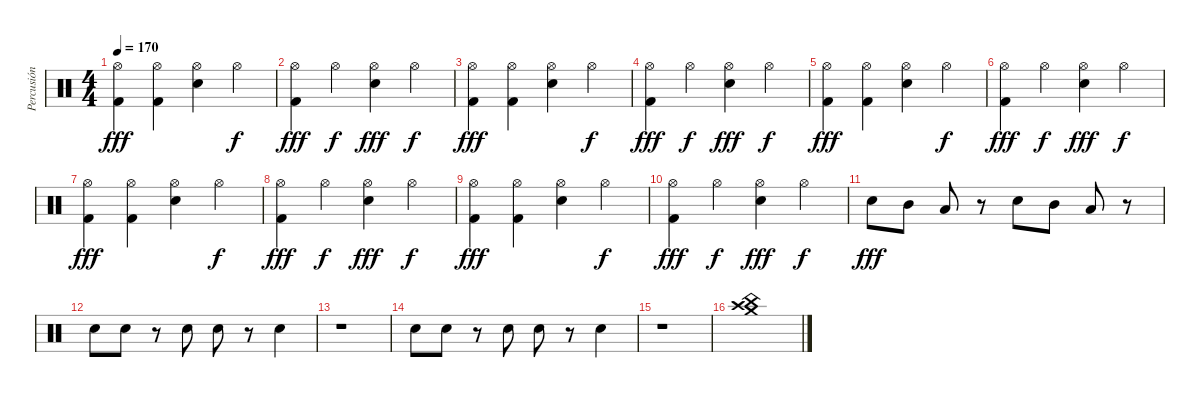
\track ("Percusión" "Percusión") {instrument percussion}
\staff {score}
\articulation defaults
\ts (4 4)
\tempo 170
\clef neutral
\ks c
("Hi-Hat (open)" "Kick (hit) 2").4{dy fff} ("Hi-Hat (open)" "Kick (hit) 2").4 ("Hi-Hat (open)" "Electric Snare (hit)").4 "Hi-Hat (open)".4{dy f} |
("Hi-Hat (open)" "Kick (hit) 2").4{dy fff} "Hi-Hat (open)".4{dy f} ("Hi-Hat (open)" "Electric Snare (hit)").4{dy fff} "Hi-Hat (open)".4{dy f} |
("Hi-Hat (open)" "Kick (hit) 2").4{dy fff} ("Hi-Hat (open)" "Kick (hit) 2").4 ("Hi-Hat (open)" "Electric Snare (hit)").4 "Hi-Hat (open)".4{dy f} |
("Hi-Hat (open)" "Kick (hit) 2").4{dy fff} "Hi-Hat (open)".4{dy f} ("Hi-Hat (open)" "Electric Snare (hit)").4{dy fff} "Hi-Hat (open)".4{dy f} |
("Hi-Hat (open)" "Kick (hit) 2").4{dy fff} ("Hi-Hat (open)" "Kick (hit) 2").4 ("Hi-Hat (open)" "Electric Snare (hit)").4 "Hi-Hat (open)".4{dy f} |
("Hi-Hat (open)" "Kick (hit) 2").4{dy fff} "Hi-Hat (open)".4{dy f} ("Hi-Hat (open)" "Electric Snare (hit)").4{dy fff} "Hi-Hat (open)".4{dy f} |
("Hi-Hat (open)" "Kick (hit) 2").4{dy fff} ("Hi-Hat (open)" "Kick (hit) 2").4 ("Hi-Hat (open)" "Electric Snare (hit)").4 "Hi-Hat (open)".4{dy f} |
("Hi-Hat (open)" "Kick (hit) 2").4{dy fff} "Hi-Hat (open)".4{dy f} ("Hi-Hat (open)" "Electric Snare (hit)").4{dy fff} "Hi-Hat (open)".4{dy f} |
("Hi-Hat (open)" "Kick (hit) 2").4{dy fff} ("Hi-Hat (open)" "Kick (hit) 2").4 ("Hi-Hat (open)" "Electric Snare (hit)").4 "Hi-Hat (open)".4{dy f} |
("Hi-Hat (open)" "Kick (hit) 2").4{dy fff} "Hi-Hat (open)".4{dy f} ("Hi-Hat (open)" "Electric Snare (hit)").4{dy fff} "Hi-Hat (open)".4{dy f} |
"Electric Snare (hit)".8{dy fff} "Mid Tom (hit)".8 "Low Tom (hit)".8 r.8 "Electric Snare (hit)".8 "Mid Tom (hit)".8 "Low Tom (hit)".8 r.8 |
"Electric Snare (hit)".8 "Electric Snare (hit)".8 r.8 "Electric Snare (hit)".8 "Electric Snare (hit)".8 r.8 "Electric Snare (hit)".4 |
r.1 |
"Electric Snare (hit)".8 "Electric Snare (hit)".8 r.8 "Electric Snare (hit)".8 "Electric Snare (hit)".8 r.8 "Electric Snare (hit)".4 |
r.1 |
("Crash high (hit)" "China (hit)" "Crash medium (hit)").1
